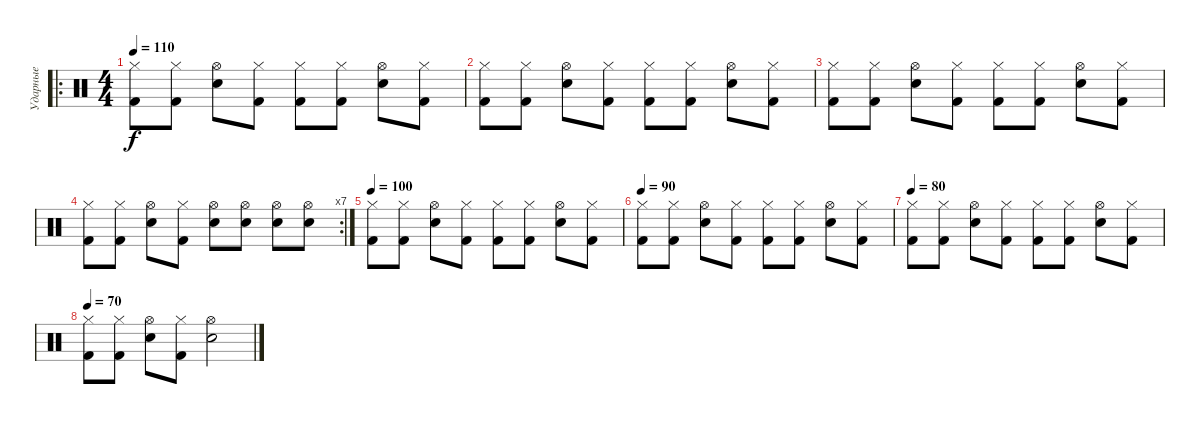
\track ("Ударные" "Ударные") {instrument percussion}
\staff {score}
\articulation defaults
\ro
\ts (4 4)
\tempo 110
\clef neutral
\ks c
("Kick (hit) 2" "Hi-Hat (closed)").8{dy f} ("Kick (hit) 2" "Hi-Hat (closed)").8 ("Electric Snare (hit)" "Hi-Hat (open)").8 ("Kick (hit) 2" "Hi-Hat (closed)").8 ("Kick (hit) 2" "Hi-Hat (closed)").8 ("Kick (hit) 2" "Hi-Hat (closed)").8 ("Electric Snare (hit)" "Hi-Hat (open)").8 ("Kick (hit) 2" "Hi-Hat (closed)").8 |
("Kick (hit) 2" "Hi-Hat (closed)").8 ("Kick (hit) 2" "Hi-Hat (closed)").8 ("Electric Snare (hit)" "Hi-Hat (open)").8 ("Kick (hit) 2" "Hi-Hat (closed)").8 ("Kick (hit) 2" "Hi-Hat (closed)").8 ("Kick (hit) 2" "Hi-Hat (closed)").8 ("Electric Snare (hit)" "Hi-Hat (open)").8 ("Kick (hit) 2" "Hi-Hat (closed)").8 |
("Kick (hit) 2" "Hi-Hat (closed)").8 ("Kick (hit) 2" "Hi-Hat (closed)").8 ("Electric Snare (hit)" "Hi-Hat (open)").8 ("Kick (hit) 2" "Hi-Hat (closed)").8 ("Kick (hit) 2" "Hi-Hat (closed)").8 ("Kick (hit) 2" "Hi-Hat (closed)").8 ("Electric Snare (hit)" "Hi-Hat (open)").8 ("Kick (hit) 2" "Hi-Hat (closed)").8 |
\rc 7
("Kick (hit) 2" "Hi-Hat (closed)").8 ("Kick (hit) 2" "Hi-Hat (closed)").8 ("Electric Snare (hit)" "Hi-Hat (open)").8 ("Kick (hit) 2" "Hi-Hat (closed)").8 ("Electric Snare (hit)" "Hi-Hat (open)").8 ("Hi-Hat (open)" "Electric Snare (hit)").8 ("Electric Snare (hit)" "Hi-Hat (open)").8 ("Hi-Hat (open)" "Electric Snare (hit)").8 |
\tempo 100
("Kick (hit) 2" "Hi-Hat (closed)").8 ("Kick (hit) 2" "Hi-Hat (closed)").8 ("Electric Snare (hit)" "Hi-Hat (open)").8 ("Kick (hit) 2" "Hi-Hat (closed)").8 ("Kick (hit) 2" "Hi-Hat (closed)").8 ("Kick (hit) 2" "Hi-Hat (closed)").8 ("Electric Snare (hit)" "Hi-Hat (open)").8 ("Kick (hit) 2" "Hi-Hat (closed)").8 |
\tempo 90
("Kick (hit) 2" "Hi-Hat (closed)").8 ("Kick (hit) 2" "Hi-Hat (closed)").8 ("Electric Snare (hit)" "Hi-Hat (open)").8 ("Kick (hit) 2" "Hi-Hat (closed)").8 ("Kick (hit) 2" "Hi-Hat (closed)").8 ("Kick (hit) 2" "Hi-Hat (closed)").8 ("Electric Snare (hit)" "Hi-Hat (open)").8 ("Kick (hit) 2" "Hi-Hat (closed)").8 |
\tempo 80
("Kick (hit) 2" "Hi-Hat (closed)").8 ("Kick (hit) 2" "Hi-Hat (closed)").8 ("Electric Snare (hit)" "Hi-Hat (open)").8 ("Kick (hit) 2" "Hi-Hat (closed)").8 ("Kick (hit) 2" "Hi-Hat (closed)").8 ("Kick (hit) 2" "Hi-Hat (closed)").8 ("Electric Snare (hit)" "Hi-Hat (open)").8 ("Kick (hit) 2" "Hi-Hat (closed)").8 |
\tempo 70
("Kick (hit) 2" "Hi-Hat (closed)").8 ("Kick (hit) 2" "Hi-Hat (closed)").8 ("Electric Snare (hit)" "Hi-Hat (open)").8 ("Kick (hit) 2" "Hi-Hat (closed)").8 ("Electric Snare (hit)" "Hi-Hat (open)").2
